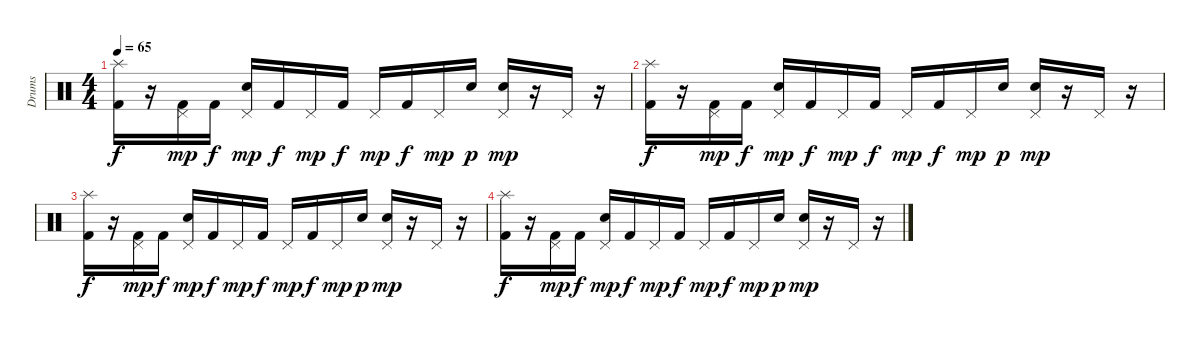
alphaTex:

\track ("Drums" "Drums") {instrument percussion}
\staff {score}
\articulation defaults
\ts (4 4)
\tempo 65
\clef neutral
\ks c
("Splash (hit)" "Kick (hit) 2").16{dy f} r.16 ("Pedal Hi-Hat (hit)" "Kick (hit) 2").16{dy mp} "Kick (hit) 2".16{dy f} ("Pedal Hi-Hat (hit)" "Snare (hit) 2").16{dy mp} "Kick (hit) 2".16{dy f} "Pedal Hi-Hat (hit)".16{dy mp} "Kick (hit) 2".16{dy f} "Pedal Hi-Hat (hit)".16{dy mp} "Kick (hit) 2".16{dy f} "Pedal Hi-Hat (hit)".16{dy mp} "Snare (hit) 2".16{dy p} ("Pedal Hi-Hat (hit)" "Snare (hit) 2").16{dy mp} r.16 "Pedal Hi-Hat (hit)".16 r.16 |
("Splash (hit)" "Kick (hit) 2").16{dy f} r.16 ("Pedal Hi-Hat (hit)" "Kick (hit) 2").16{dy mp} "Kick (hit) 2".16{dy f} ("Pedal Hi-Hat (hit)" "Snare (hit) 2").16{dy mp} "Kick (hit) 2".16{dy f} "Pedal Hi-Hat (hit)".16{dy mp} "Kick (hit) 2".16{dy f} "Pedal Hi-Hat (hit)".16{dy mp} "Kick (hit) 2".16{dy f} "Pedal Hi-Hat (hit)".16{dy mp} "Snare (hit) 2".16{dy p} ("Pedal Hi-Hat (hit)" "Snare (hit) 2").16{dy mp} r.16 "Pedal Hi-Hat (hit)".16 r.16 |
("Splash (hit)" "Kick (hit) 2").16{dy f} r.16 ("Pedal Hi-Hat (hit)" "Kick (hit) 2").16{dy mp} "Kick (hit) 2".16{dy f} ("Pedal Hi-Hat (hit)" "Snare (hit) 2").16{dy mp} "Kick (hit) 2".16{dy f} "Pedal Hi-Hat (hit)".16{dy mp} "Kick (hit) 2".16{dy f} "Pedal Hi-Hat (hit)".16{dy mp} "Kick (hit) 2".16{dy f} "Pedal Hi-Hat (hit)".16{dy mp} "Snare (hit) 2".16{dy p} ("Pedal Hi-Hat (hit)" "Snare (hit) 2").16{dy mp} r.16 "Pedal Hi-Hat (hit)".16 r.16 |
("Splash (hit)" "Kick (hit) 2").16{dy f} r.16 ("Pedal Hi-Hat (hit)" "Kick (hit) 2").16{dy mp} "Kick (hit) 2".16{dy f} ("Pedal Hi-Hat (hit)" "Snare (hit) 2").16{dy mp} "Kick (hit) 2".16{dy f} "Pedal Hi-Hat (hit)".16{dy mp} "Kick (hit) 2".16{dy f} "Pedal Hi-Hat (hit)".16{dy mp} "Kick (hit) 2".16{dy f} "Pedal Hi-Hat (hit)".16{dy mp} "Snare (hit) 2".16{dy p} ("Pedal Hi-Hat (hit)" "Snare (hit) 2").16{dy mp} r.16 "Pedal Hi-Hat (hit)".16 r.16
